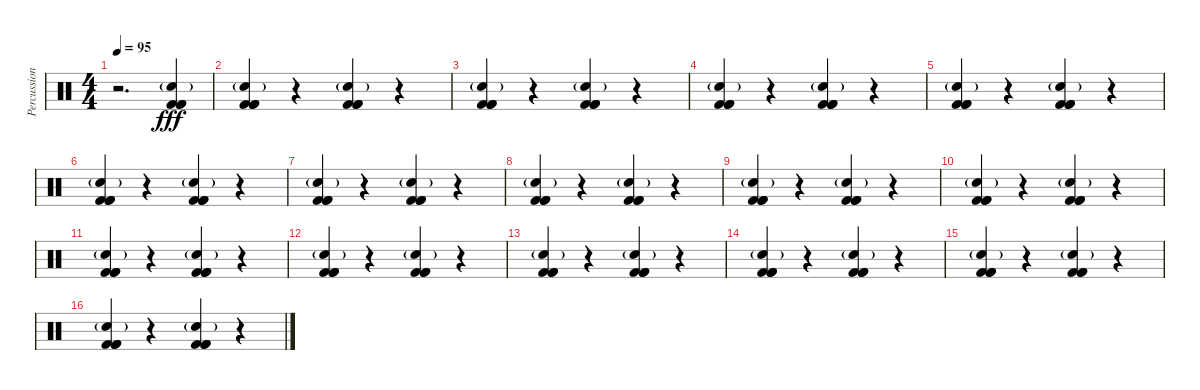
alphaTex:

\track ("Percussion" "Percussion") {instrument percussion}
\staff {score}
\articulation defaults
\ts (4 4)
\tempo 95
\clef neutral
\ks c
r.2{d dy fff} ("Hand Clap (hit)"{g} "Kick (hit) 2" "Kick (hit) 2" "Kick (hit) 2").4{bd 120} |
("Hand Clap (hit)"{g} "Kick (hit) 2" "Kick (hit) 2" "Kick (hit) 2").4{bd 120} r.4 ("Hand Clap (hit)"{g} "Kick (hit) 2" "Kick (hit) 2" "Kick (hit) 2").4{bd 120} r.4 |
("Hand Clap (hit)"{g} "Kick (hit) 2" "Kick (hit) 2" "Kick (hit) 2").4{bd 120} r.4 ("Hand Clap (hit)"{g} "Kick (hit) 2" "Kick (hit) 2" "Kick (hit) 2").4{bd 120} r.4 |
("Hand Clap (hit)"{g} "Kick (hit) 2" "Kick (hit) 2" "Kick (hit) 2").4{bd 120} r.4 ("Hand Clap (hit)"{g} "Kick (hit) 2" "Kick (hit) 2" "Kick (hit) 2").4{bd 120} r.4 |
("Hand Clap (hit)"{g} "Kick (hit) 2" "Kick (hit) 2" "Kick (hit) 2").4{bd 120} r.4 ("Hand Clap (hit)"{g} "Kick (hit) 2" "Kick (hit) 2" "Kick (hit) 2").4{bd 120} r.4 |
("Hand Clap (hit)"{g} "Kick (hit) 2" "Kick (hit) 2" "Kick (hit) 2").4{bd 120} r.4 ("Hand Clap (hit)"{g} "Kick (hit) 2" "Kick (hit) 2" "Kick (hit) 2").4{bd 120} r.4 |
("Hand Clap (hit)"{g} "Kick (hit) 2" "Kick (hit) 2" "Kick (hit) 2").4{bd 120} r.4 ("Hand Clap (hit)"{g} "Kick (hit) 2" "Kick (hit) 2" "Kick (hit) 2").4{bd 120} r.4 |
("Hand Clap (hit)"{g} "Kick (hit) 2" "Kick (hit) 2" "Kick (hit) 2").4{bd 120} r.4 ("Hand Clap (hit)"{g} "Kick (hit) 2" "Kick (hit) 2" "Kick (hit) 2").4{bd 120} r.4 |
("Hand Clap (hit)"{g} "Kick (hit) 2" "Kick (hit) 2" "Kick (hit) 2").4{bd 120} r.4 ("Hand Clap (hit)"{g} "Kick (hit) 2" "Kick (hit) 2" "Kick (hit) 2").4{bd 120} r.4 |
("Hand Clap (hit)"{g} "Kick (hit) 2" "Kick (hit) 2" "Kick (hit) 2").4{bd 120} r.4 ("Hand Clap (hit)"{g} "Kick (hit) 2" "Kick (hit) 2" "Kick (hit) 2").4{bd 120} r.4 |
("Hand Clap (hit)"{g} "Kick (hit) 2" "Kick (hit) 2" "Kick (hit) 2").4{bd 120} r.4 ("Hand Clap (hit)"{g} "Kick (hit) 2" "Kick (hit) 2" "Kick (hit) 2").4{bd 120} r.4 |
("Hand Clap (hit)"{g} "Kick (hit) 2" "Kick (hit) 2" "Kick (hit) 2").4{bd 120} r.4 ("Hand Clap (hit)"{g} "Kick (hit) 2" "Kick (hit) 2" "Kick (hit) 2").4{bd 120} r.4 |
("Hand Clap (hit)"{g} "Kick (hit) 2" "Kick (hit) 2" "Kick (hit) 2").4{bd 120} r.4 ("Hand Clap (hit)"{g} "Kick (hit) 2" "Kick (hit) 2" "Kick (hit) 2").4{bd 120} r.4 |
("Hand Clap (hit)"{g} "Kick (hit) 2" "Kick (hit) 2" "Kick (hit) 2").4{bd 120} r.4 ("Hand Clap (hit)"{g} "Kick (hit) 2" "Kick (hit) 2" "Kick (hit) 2").4{bd 120} r.4 |
("Hand Clap (hit)"{g} "Kick (hit) 2" "Kick (hit) 2" "Kick (hit) 2").4{bd 120} r.4 ("Hand Clap (hit)"{g} "Kick (hit) 2" "Kick (hit) 2" "Kick (hit) 2").4{bd 120} r.4 |
("Hand Clap (hit)"{g} "Kick (hit) 2" "Kick (hit) 2" "Kick (hit) 2").4{bd 120} r.4 ("Hand Clap (hit)"{g} "Kick (hit) 2" "Kick (hit) 2" "Kick (hit) 2").4{bd 120} r.4
